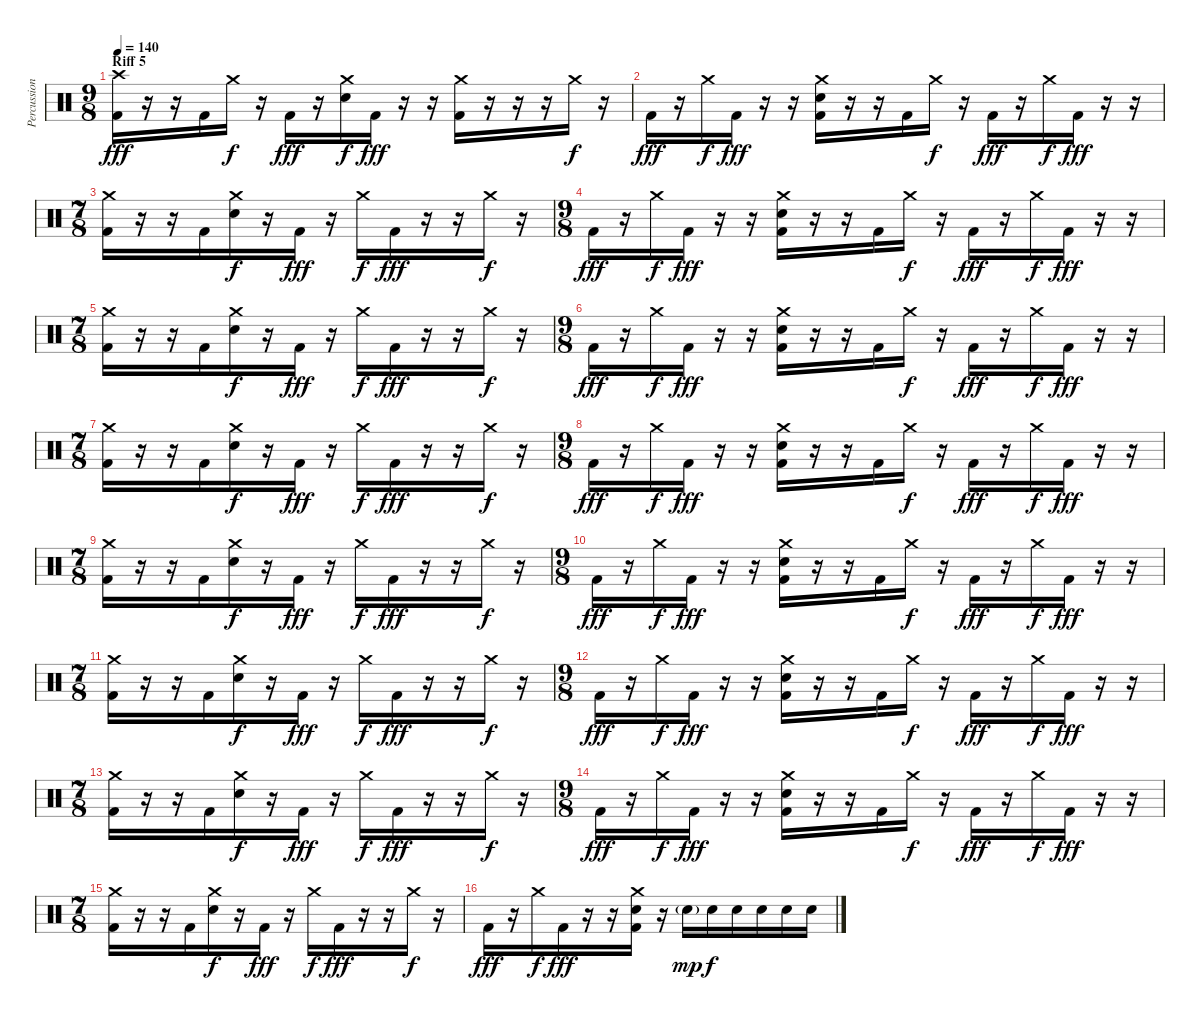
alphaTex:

\track ("Percussion" "Percussion") {instrument percussion}
\staff {score}
\articulation defaults
\ts (9 8)
\section ("" "Riff 5")
\tempo 140
\clef neutral
\ks c
("Crash high (hit)" "Kick (hit) 2").16{dy fff} r.16 r.16 "Kick (hit) 2".16 "Crash medium (hit)".16{dy f} r.16 "Kick (hit) 2".16{dy fff} r.16 ("Crash medium (hit)" "Electric Snare (hit)").16{dy f} "Kick (hit) 2".16{dy fff} r.16 r.16 ("Crash medium (hit)" "Kick (hit) 2").16 r.16 r.16 r.16 "Crash medium (hit)".16{dy f} r.16 |
"Kick (hit) 2".16{dy fff} r.16 "Crash medium (hit)".16{dy f} "Kick (hit) 2".16{dy fff} r.16 r.16 ("Crash medium (hit)" "Electric Snare (hit)" "Kick (hit) 2").16 r.16 r.16 "Kick (hit) 2".16 "Crash medium (hit)".16{dy f} r.16 "Kick (hit) 2".16{dy fff} r.16 "Crash medium (hit)".16{dy f} "Kick (hit) 2".16{dy fff} r.16 r.16 |
\ts (7 8)
("Crash medium (hit)" "Kick (hit) 2").16 r.16 r.16 "Kick (hit) 2".16 ("Crash medium (hit)" "Electric Snare (hit)").16{dy f} r.16 "Kick (hit) 2".16{dy fff} r.16 "Crash medium (hit)".16{dy f} "Kick (hit) 2".16{dy fff} r.16 r.16 "Crash medium (hit)".16{dy f} r.16 |
\ts (9 8)
"Kick (hit) 2".16{dy fff} r.16 "Crash medium (hit)".16{dy f} "Kick (hit) 2".16{dy fff} r.16 r.16 ("Crash medium (hit)" "Electric Snare (hit)" "Kick (hit) 2").16 r.16 r.16 "Kick (hit) 2".16 "Crash medium (hit)".16{dy f} r.16 "Kick (hit) 2".16{dy fff} r.16 "Crash medium (hit)".16{dy f} "Kick (hit) 2".16{dy fff} r.16 r.16 |
\ts (7 8)
("Crash medium (hit)" "Kick (hit) 2").16 r.16 r.16 "Kick (hit) 2".16 ("Crash medium (hit)" "Electric Snare (hit)").16{dy f} r.16 "Kick (hit) 2".16{dy fff} r.16 "Crash medium (hit)".16{dy f} "Kick (hit) 2".16{dy fff} r.16 r.16 "Crash medium (hit)".16{dy f} r.16 |
\ts (9 8)
"Kick (hit) 2".16{dy fff} r.16 "Crash medium (hit)".16{dy f} "Kick (hit) 2".16{dy fff} r.16 r.16 ("Crash medium (hit)" "Electric Snare (hit)" "Kick (hit) 2").16 r.16 r.16 "Kick (hit) 2".16 "Crash medium (hit)".16{dy f} r.16 "Kick (hit) 2".16{dy fff} r.16 "Crash medium (hit)".16{dy f} "Kick (hit) 2".16{dy fff} r.16 r.16 |
\ts (7 8)
("Crash medium (hit)" "Kick (hit) 2").16 r.16 r.16 "Kick (hit) 2".16 ("Crash medium (hit)" "Electric Snare (hit)").16{dy f} r.16 "Kick (hit) 2".16{dy fff} r.16 "Crash medium (hit)".16{dy f} "Kick (hit) 2".16{dy fff} r.16 r.16 "Crash medium (hit)".16{dy f} r.16 |
\ts (9 8)
"Kick (hit) 2".16{dy fff} r.16 "Crash medium (hit)".16{dy f} "Kick (hit) 2".16{dy fff} r.16 r.16 ("Crash medium (hit)" "Electric Snare (hit)" "Kick (hit) 2").16 r.16 r.16 "Kick (hit) 2".16 "Crash medium (hit)".16{dy f} r.16 "Kick (hit) 2".16{dy fff} r.16 "Crash medium (hit)".16{dy f} "Kick (hit) 2".16{dy fff} r.16 r.16 |
\ts (7 8)
("Crash medium (hit)" "Kick (hit) 2").16 r.16 r.16 "Kick (hit) 2".16 ("Crash medium (hit)" "Electric Snare (hit)").16{dy f} r.16 "Kick (hit) 2".16{dy fff} r.16 "Crash medium (hit)".16{dy f} "Kick (hit) 2".16{dy fff} r.16 r.16 "Crash medium (hit)".16{dy f} r.16 |
\ts (9 8)
"Kick (hit) 2".16{dy fff} r.16 "Crash medium (hit)".16{dy f} "Kick (hit) 2".16{dy fff} r.16 r.16 ("Crash medium (hit)" "Electric Snare (hit)" "Kick (hit) 2").16 r.16 r.16 "Kick (hit) 2".16 "Crash medium (hit)".16{dy f} r.16 "Kick (hit) 2".16{dy fff} r.16 "Crash medium (hit)".16{dy f} "Kick (hit) 2".16{dy fff} r.16 r.16 |
\ts (7 8)
("Crash medium (hit)" "Kick (hit) 2").16 r.16 r.16 "Kick (hit) 2".16 ("Crash medium (hit)" "Electric Snare (hit)").16{dy f} r.16 "Kick (hit) 2".16{dy fff} r.16 "Crash medium (hit)".16{dy f} "Kick (hit) 2".16{dy fff} r.16 r.16 "Crash medium (hit)".16{dy f} r.16 |
\ts (9 8)
"Kick (hit) 2".16{dy fff} r.16 "Crash medium (hit)".16{dy f} "Kick (hit) 2".16{dy fff} r.16 r.16 ("Crash medium (hit)" "Electric Snare (hit)" "Kick (hit) 2").16 r.16 r.16 "Kick (hit) 2".16 "Crash medium (hit)".16{dy f} r.16 "Kick (hit) 2".16{dy fff} r.16 "Crash medium (hit)".16{dy f} "Kick (hit) 2".16{dy fff} r.16 r.16 |
\ts (7 8)
("Crash medium (hit)" "Kick (hit) 2").16 r.16 r.16 "Kick (hit) 2".16 ("Crash medium (hit)" "Electric Snare (hit)").16{dy f} r.16 "Kick (hit) 2".16{dy fff} r.16 "Crash medium (hit)".16{dy f} "Kick (hit) 2".16{dy fff} r.16 r.16 "Crash medium (hit)".16{dy f} r.16 |
\ts (9 8)
"Kick (hit) 2".16{dy fff} r.16 "Crash medium (hit)".16{dy f} "Kick (hit) 2".16{dy fff} r.16 r.16 ("Crash medium (hit)" "Electric Snare (hit)" "Kick (hit) 2").16 r.16 r.16 "Kick (hit) 2".16 "Crash medium (hit)".16{dy f} r.16 "Kick (hit) 2".16{dy fff} r.16 "Crash medium (hit)".16{dy f} "Kick (hit) 2".16{dy fff} r.16 r.16 |
\ts (7 8)
("Crash medium (hit)" "Kick (hit) 2").16 r.16 r.16 "Kick (hit) 2".16 ("Crash medium (hit)" "Electric Snare (hit)").16{dy f} r.16 "Kick (hit) 2".16{dy fff} r.16 "Crash medium (hit)".16{dy f} "Kick (hit) 2".16{dy fff} r.16 r.16 "Crash medium (hit)".16{dy f} r.16 |
"Kick (hit) 2".16{dy fff} r.16 "Crash medium (hit)".16{dy f} "Kick (hit) 2".16{dy fff} r.16 r.16 ("Crash medium (hit)" "Electric Snare (hit)" "Kick (hit) 2").16 r.16 "Electric Snare (hit)"{g}.16{dy mp} "Electric Snare (hit)".16{dy f} "Electric Snare (hit)".16 "Electric Snare (hit)".16 "Electric Snare (hit)".16 "Electric Snare (hit)".16
